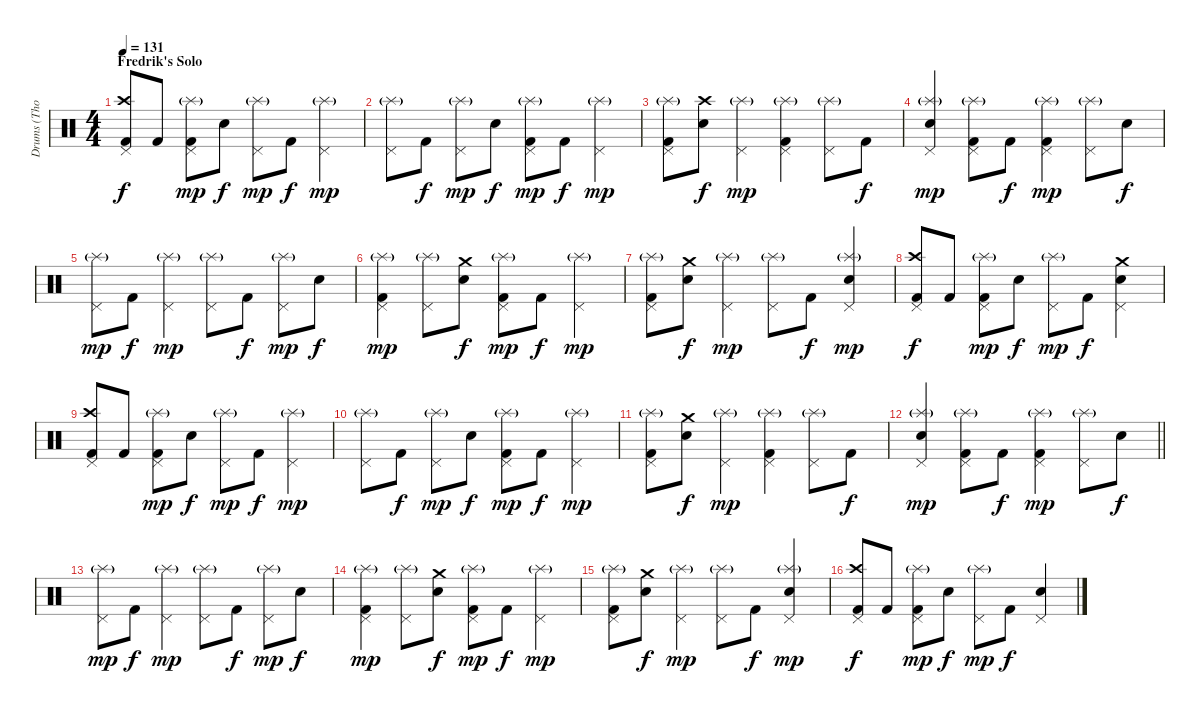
\track ("Drums (Thomas Haake)" "Drums (Tho") {instrument percussion}
\staff {score}
\articulation defaults
\ts (4 4)
\section ("" "Fredrik's Solo")
\tempo 131
\clef neutral
\ks c
("Pedal Hi-Hat (hit)" "Crash high (hit)" "Kick (hit) 2").8{dy f} "Kick (hit) 2".8 ("Pedal Hi-Hat (hit)" "Splash (hit)"{g} "Kick (hit) 2").8{dy mp} "Electric Snare (hit)".8{dy f} ("Pedal Hi-Hat (hit)" "Splash (hit)"{g}).8{dy mp} "Kick (hit) 2".8{dy f} ("Pedal Hi-Hat (hit)" "Splash (hit)"{g}).4{dy mp} |
("Pedal Hi-Hat (hit)" "Splash (hit)"{g}).8 "Kick (hit) 2".8{dy f} ("Pedal Hi-Hat (hit)" "Splash (hit)"{g}).8{dy mp} "Electric Snare (hit)".8{dy f} ("Pedal Hi-Hat (hit)" "Splash (hit)"{g} "Kick (hit) 2").8{dy mp} "Kick (hit) 2".8{dy f} ("Pedal Hi-Hat (hit)" "Splash (hit)"{g}).4{dy mp} |
("Pedal Hi-Hat (hit)" "Splash (hit)"{g} "Kick (hit) 2").8 ("Crash high (hit)" "Electric Snare (hit)").8{dy f} ("Pedal Hi-Hat (hit)" "Splash (hit)"{g}).4{dy mp} ("Pedal Hi-Hat (hit)" "Splash (hit)"{g} "Kick (hit) 2").4 ("Pedal Hi-Hat (hit)" "Splash (hit)"{g}).8 "Kick (hit) 2".8{dy f} |
("Pedal Hi-Hat (hit)" "Splash (hit)"{g} "Electric Snare (hit)").4{dy mp} ("Pedal Hi-Hat (hit)" "Splash (hit)"{g} "Kick (hit) 2").8 "Kick (hit) 2".8{dy f} ("Pedal Hi-Hat (hit)" "Splash (hit)"{g} "Kick (hit) 2").4{dy mp} ("Pedal Hi-Hat (hit)" "Splash (hit)"{g}).8 "Electric Snare (hit)".8{dy f} |
("Pedal Hi-Hat (hit)" "Splash (hit)"{g}).8{dy mp} "Kick (hit) 2".8{dy f} ("Pedal Hi-Hat (hit)" "Splash (hit)"{g}).4{dy mp} ("Pedal Hi-Hat (hit)" "Splash (hit)"{g}).8 "Kick (hit) 2".8{dy f} ("Pedal Hi-Hat (hit)" "Splash (hit)"{g}).8{dy mp} "Electric Snare (hit)".8{dy f} |
("Pedal Hi-Hat (hit)" "Splash (hit)"{g} "Kick (hit) 2").4{dy mp} ("Pedal Hi-Hat (hit)" "Splash (hit)"{g}).8 ("Crash medium (hit)" "Electric Snare (hit)").8{dy f} ("Pedal Hi-Hat (hit)" "Splash (hit)"{g} "Kick (hit) 2").8{dy mp} "Kick (hit) 2".8{dy f} ("Pedal Hi-Hat (hit)" "Splash (hit)"{g}).4{dy mp} |
("Pedal Hi-Hat (hit)" "Splash (hit)"{g} "Kick (hit) 2").8 ("Crash medium (hit)" "Electric Snare (hit)").8{dy f} ("Pedal Hi-Hat (hit)" "Splash (hit)"{g}).4{dy mp} ("Pedal Hi-Hat (hit)" "Splash (hit)"{g}).8 "Kick (hit) 2".8{dy f} ("Pedal Hi-Hat (hit)" "Splash (hit)"{g} "Electric Snare (hit)").4{dy mp} |
("Pedal Hi-Hat (hit)" "Crash high (hit)" "Kick (hit) 2").8{dy f} "Kick (hit) 2".8 ("Pedal Hi-Hat (hit)" "Splash (hit)"{g} "Kick (hit) 2").8{dy mp} "Electric Snare (hit)".8{dy f} ("Pedal Hi-Hat (hit)" "Splash (hit)"{g}).8{dy mp} "Kick (hit) 2".8{dy f} ("Pedal Hi-Hat (hit)" "Crash medium (hit)" "Electric Snare (hit)").4 |
("Pedal Hi-Hat (hit)" "Crash high (hit)" "Kick (hit) 2").8 "Kick (hit) 2".8 ("Pedal Hi-Hat (hit)" "Splash (hit)"{g} "Kick (hit) 2").8{dy mp} "Electric Snare (hit)".8{dy f} ("Pedal Hi-Hat (hit)" "Splash (hit)"{g}).8{dy mp} "Kick (hit) 2".8{dy f} ("Pedal Hi-Hat (hit)" "Splash (hit)"{g}).4{dy mp} |
("Pedal Hi-Hat (hit)" "Splash (hit)"{g}).8 "Kick (hit) 2".8{dy f} ("Pedal Hi-Hat (hit)" "Splash (hit)"{g}).8{dy mp} "Electric Snare (hit)".8{dy f} ("Pedal Hi-Hat (hit)" "Splash (hit)"{g} "Kick (hit) 2").8{dy mp} "Kick (hit) 2".8{dy f} ("Pedal Hi-Hat (hit)" "Splash (hit)"{g}).4{dy mp} |
("Pedal Hi-Hat (hit)" "Splash (hit)"{g} "Kick (hit) 2").8 ("Crash medium (hit)" "Electric Snare (hit)").8{dy f} ("Pedal Hi-Hat (hit)" "Splash (hit)"{g}).4{dy mp} ("Pedal Hi-Hat (hit)" "Splash (hit)"{g} "Kick (hit) 2").4 ("Pedal Hi-Hat (hit)" "Splash (hit)"{g}).8 "Kick (hit) 2".8{dy f} |
\barLineRight lightlight
("Pedal Hi-Hat (hit)" "Splash (hit)"{g} "Electric Snare (hit)").4{dy mp} ("Pedal Hi-Hat (hit)" "Splash (hit)"{g} "Kick (hit) 2").8 "Kick (hit) 2".8{dy f} ("Pedal Hi-Hat (hit)" "Splash (hit)"{g} "Kick (hit) 2").4{dy mp} ("Pedal Hi-Hat (hit)" "Splash (hit)"{g}).8 "Electric Snare (hit)".8{dy f} |
("Pedal Hi-Hat (hit)" "Splash (hit)"{g}).8{dy mp} "Kick (hit) 2".8{dy f} ("Pedal Hi-Hat (hit)" "Splash (hit)"{g}).4{dy mp} ("Pedal Hi-Hat (hit)" "Splash (hit)"{g}).8 "Kick (hit) 2".8{dy f} ("Pedal Hi-Hat (hit)" "Splash (hit)"{g}).8{dy mp} "Electric Snare (hit)".8{dy f} |
("Pedal Hi-Hat (hit)" "Splash (hit)"{g} "Kick (hit) 2").4{dy mp} ("Pedal Hi-Hat (hit)" "Splash (hit)"{g}).8 ("Crash medium (hit)" "Electric Snare (hit)").8{dy f} ("Pedal Hi-Hat (hit)" "Splash (hit)"{g} "Kick (hit) 2").8{dy mp} "Kick (hit) 2".8{dy f} ("Pedal Hi-Hat (hit)" "Splash (hit)"{g}).4{dy mp} |
("Pedal Hi-Hat (hit)" "Splash (hit)"{g} "Kick (hit) 2").8 ("Crash medium (hit)" "Electric Snare (hit)").8{dy f} ("Pedal Hi-Hat (hit)" "Splash (hit)"{g}).4{dy mp} ("Pedal Hi-Hat (hit)" "Splash (hit)"{g}).8 "Kick (hit) 2".8{dy f} ("Pedal Hi-Hat (hit)" "Splash (hit)"{g} "Electric Snare (hit)").4{dy mp} |
("Pedal Hi-Hat (hit)" "Crash high (hit)" "Kick (hit) 2").8{dy f} "Kick (hit) 2".8 ("Pedal Hi-Hat (hit)" "Splash (hit)"{g} "Kick (hit) 2").8{dy mp} "Electric Snare (hit)".8{dy f} ("Pedal Hi-Hat (hit)" "Splash (hit)"{g}).8{dy mp} "Kick (hit) 2".8{dy f} ("Pedal Hi-Hat (hit)" "Electric Snare (hit)").4
